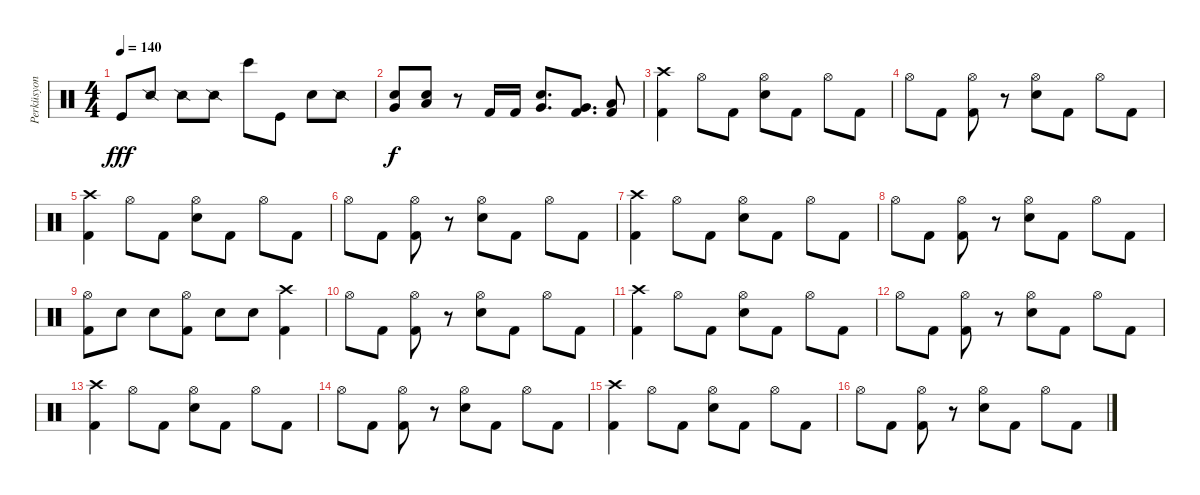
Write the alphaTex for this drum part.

\track ("Perküsyon" "Perküsyon") {instrument percussion}
\staff {score}
\articulation defaults
\ts (4 4)
\tempo 140
\clef neutral
\ks c "Kick (hit)".8{dy fff} "Snare (side stick) 2".8 "Snare (side stick) 2".8 "Snare (side stick) 2".8 "Bongo High (hit)".8 "Kick (hit)".8 "Metronome (bell)".8 "Snare (side stick) 2".8
|
("Very Low Tom (hit)" "Electric Snare (hit)").8{dy f} ("Low Floor Tom (hit)" "Electric Snare (hit)").8 r.8 "Kick (hit) 2".16 "Kick (hit) 2".16 ("Very Low Tom (hit)" "Electric Snare (hit)").8{d} ("Very Low Tom (hit)" "Kick (hit) 2").8{d} ("Low Floor Tom (hit)" "Kick (hit) 2").8 |
("Crash high (hit)" "Kick (hit) 2").4 "Hi-Hat (open)".8 "Kick (hit) 2".8 ("Hi-Hat (open)" "Electric Snare (hit)").8 "Kick (hit) 2".8 "Hi-Hat (open)".8 "Kick (hit) 2".8 |
"Hi-Hat (open)".8 "Kick (hit) 2".8 ("Hi-Hat (open)" "Kick (hit) 2").8 r.8 ("Hi-Hat (open)" "Electric Snare (hit)").8 "Kick (hit) 2".8 "Hi-Hat (open)".8 "Kick (hit) 2".8 |
("Crash high (hit)" "Kick (hit) 2").4 "Hi-Hat (open)".8 "Kick (hit) 2".8 ("Hi-Hat (open)" "Electric Snare (hit)").8 "Kick (hit) 2".8 "Hi-Hat (open)".8 "Kick (hit) 2".8 |
"Hi-Hat (open)".8 "Kick (hit) 2".8 ("Hi-Hat (open)" "Kick (hit) 2").8 r.8 ("Hi-Hat (open)" "Electric Snare (hit)").8 "Kick (hit) 2".8 "Hi-Hat (open)".8 "Kick (hit) 2".8 |
("Crash high (hit)" "Kick (hit) 2").4 "Hi-Hat (open)".8 "Kick (hit) 2".8 ("Hi-Hat (open)" "Electric Snare (hit)").8 "Kick (hit) 2".8 "Hi-Hat (open)".8 "Kick (hit) 2".8 |
"Hi-Hat (open)".8 "Kick (hit) 2".8 ("Hi-Hat (open)" "Kick (hit) 2").8 r.8 ("Hi-Hat (open)" "Electric Snare (hit)").8 "Kick (hit) 2".8 "Hi-Hat (open)".8 "Kick (hit) 2".8 |
("Hi-Hat (open)" "Kick (hit) 2").8 "Electric Snare (hit)".8 "Electric Snare (hit)".8 ("Hi-Hat (open)" "Kick (hit) 2").8 "Electric Snare (hit)".8 "Electric Snare (hit)".8 ("Crash high (hit)" "Kick (hit) 2").4 |
"Hi-Hat (open)".8 "Kick (hit) 2".8 ("Hi-Hat (open)" "Kick (hit) 2").8 r.8 ("Hi-Hat (open)" "Electric Snare (hit)").8 "Kick (hit) 2".8 "Hi-Hat (open)".8 "Kick (hit) 2".8 |
("Crash high (hit)" "Kick (hit) 2").4 "Hi-Hat (open)".8 "Kick (hit) 2".8 ("Hi-Hat (open)" "Electric Snare (hit)").8 "Kick (hit) 2".8 "Hi-Hat (open)".8 "Kick (hit) 2".8 |
"Hi-Hat (open)".8 "Kick (hit) 2".8 ("Hi-Hat (open)" "Kick (hit) 2").8 r.8 ("Hi-Hat (open)" "Electric Snare (hit)").8 "Kick (hit) 2".8 "Hi-Hat (open)".8 "Kick (hit) 2".8 |
("Crash high (hit)" "Kick (hit) 2").4 "Hi-Hat (open)".8 "Kick (hit) 2".8 ("Hi-Hat (open)" "Electric Snare (hit)").8 "Kick (hit) 2".8 "Hi-Hat (open)".8 "Kick (hit) 2".8 |
"Hi-Hat (open)".8 "Kick (hit) 2".8 ("Hi-Hat (open)" "Kick (hit) 2").8 r.8 ("Hi-Hat (open)" "Electric Snare (hit)").8 "Kick (hit) 2".8 "Hi-Hat (open)".8 "Kick (hit) 2".8 |
("Crash high (hit)" "Kick (hit) 2").4 "Hi-Hat (open)".8 "Kick (hit) 2".8 ("Hi-Hat (open)" "Electric Snare (hit)").8 "Kick (hit) 2".8 "Hi-Hat (open)".8 "Kick (hit) 2".8 |
"Hi-Hat (open)".8 "Kick (hit) 2".8 ("Hi-Hat (open)" "Kick (hit) 2").8 r.8 ("Hi-Hat (open)" "Electric Snare (hit)").8 "Kick (hit) 2".8 "Hi-Hat (open)".8 "Kick (hit) 2".8
